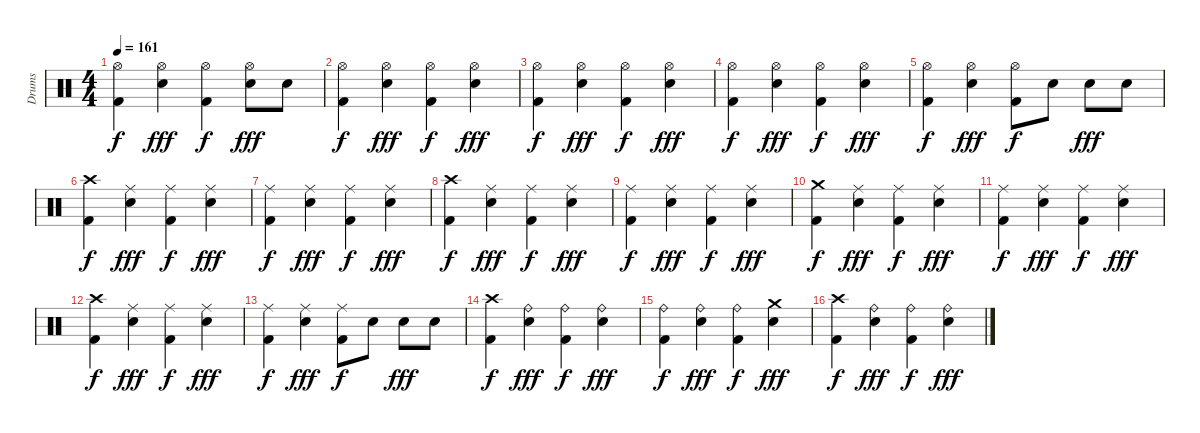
\track ("Drums" "Drums") {instrument percussion}
\staff {score}
\articulation defaults
\ts (4 4)
\tempo 161
\clef neutral
\ks c
("Hi-Hat (open)" "Kick (hit) 2").4{dy f} ("Hi-Hat (open)" "Electric Snare (hit)").4{dy fff} ("Hi-Hat (open)" "Kick (hit) 2").4{dy f} ("Hi-Hat (open)" "Electric Snare (hit)").8{dy fff} "Electric Snare (hit)".8 |
("Hi-Hat (open)" "Kick (hit) 2").4{dy f} ("Hi-Hat (open)" "Electric Snare (hit)").4{dy fff} ("Hi-Hat (open)" "Kick (hit) 2").4{dy f} ("Hi-Hat (open)" "Electric Snare (hit)").4{dy fff} |
("Hi-Hat (open)" "Kick (hit) 2").4{dy f} ("Hi-Hat (open)" "Electric Snare (hit)").4{dy fff} ("Hi-Hat (open)" "Kick (hit) 2").4{dy f} ("Hi-Hat (open)" "Electric Snare (hit)").4{dy fff} |
("Hi-Hat (open)" "Kick (hit) 2").4{dy f} ("Hi-Hat (open)" "Electric Snare (hit)").4{dy fff} ("Hi-Hat (open)" "Kick (hit) 2").4{dy f} ("Hi-Hat (open)" "Electric Snare (hit)").4{dy fff} |
("Hi-Hat (open)" "Kick (hit) 2").4{dy f} ("Hi-Hat (open)" "Electric Snare (hit)").4{dy fff} ("Hi-Hat (open)" "Kick (hit) 2").8{dy f} "Electric Snare (hit)".8 "Electric Snare (hit)".8{dy fff} "Electric Snare (hit)".8 |
("Crash high (hit)" "Kick (hit) 2").4{dy f} ("Ride (middle)" "Electric Snare (hit)").4{dy fff} ("Ride (middle)" "Kick (hit) 2").4{dy f} ("Ride (middle)" "Electric Snare (hit)").4{dy fff} |
("Ride (middle)" "Kick (hit) 2").4{dy f} ("Ride (middle)" "Electric Snare (hit)").4{dy fff} ("Ride (middle)" "Kick (hit) 2").4{dy f} ("Ride (middle)" "Electric Snare (hit)").4{dy fff} |
("Crash high (hit)" "Kick (hit) 2").4{dy f} ("Ride (middle)" "Electric Snare (hit)").4{dy fff} ("Ride (middle)" "Kick (hit) 2").4{dy f} ("Ride (middle)" "Electric Snare (hit)").4{dy fff} |
("Ride (middle)" "Kick (hit) 2").4{dy f} ("Ride (middle)" "Electric Snare (hit)").4{dy fff} ("Ride (middle)" "Kick (hit) 2").4{dy f} ("Ride (middle)" "Electric Snare (hit)").4{dy fff} |
("Crash medium (hit)" "Kick (hit) 2").4{dy f} ("Ride (middle)" "Electric Snare (hit)").4{dy fff} ("Ride (middle)" "Kick (hit) 2").4{dy f} ("Ride (middle)" "Electric Snare (hit)").4{dy fff} |
("Ride (middle)" "Kick (hit) 2").4{dy f} ("Ride (middle)" "Electric Snare (hit)").4{dy fff} ("Ride (middle)" "Kick (hit) 2").4{dy f} ("Ride (middle)" "Electric Snare (hit)").4{dy fff} |
("Crash high (hit)" "Kick (hit) 2").4{dy f} ("Ride (middle)" "Electric Snare (hit)").4{dy fff} ("Ride (middle)" "Kick (hit) 2").4{dy f} ("Ride (middle)" "Electric Snare (hit)").4{dy fff} |
("Ride (middle)" "Kick (hit) 2").4{dy f} ("Ride (middle)" "Electric Snare (hit)").4{dy fff} ("Ride (middle)" "Kick (hit) 2").8{dy f} "Electric Snare (hit)".8 "Electric Snare (hit)".8{dy fff} "Electric Snare (hit)".8 |
("Crash high (hit)" "Kick (hit) 2").4{dy f} ("Ride (bell)" "Electric Snare (hit)").4{dy fff} ("Ride (bell)" "Kick (hit) 2").4{dy f} ("Ride (bell)" "Electric Snare (hit)").4{dy fff} |
("Ride (bell)" "Kick (hit) 2").4{dy f} ("Ride (bell)" "Electric Snare (hit)").4{dy fff} ("Ride (bell)" "Kick (hit) 2").4{dy f} ("Crash medium (hit)" "Electric Snare (hit)").4{dy fff} |
("Crash high (hit)" "Kick (hit) 2").4{dy f} ("Ride (bell)" "Electric Snare (hit)").4{dy fff} ("Ride (bell)" "Kick (hit) 2").4{dy f} ("Ride (bell)" "Electric Snare (hit)").4{dy fff}
